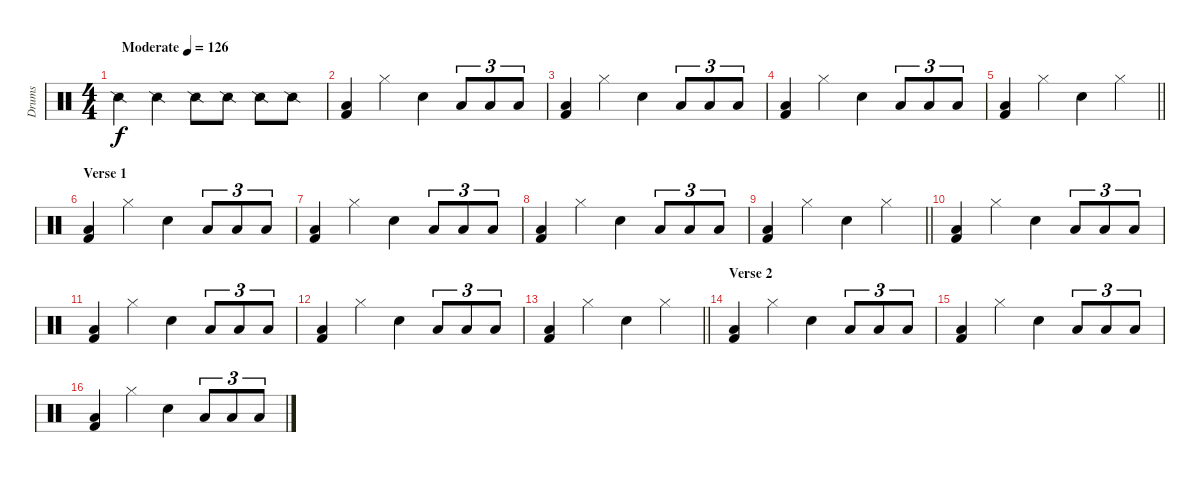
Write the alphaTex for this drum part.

\track ("Drums" "Drums") {instrument percussion}
\staff {score}
\articulation defaults
\ts (4 4)
\tempo (126 "Moderate")
\clef neutral
\ks c "Snare (side stick) 2".4{dy f} "Snare (side stick) 2".4 "Snare (side stick) 2".8 "Snare (side stick) 2".8 "Snare (side stick) 2".8 "Snare (side stick) 2".8
|
("Low Floor Tom (hit)" "Kick (hit) 2").4 "Hi-Hat (closed)".4 "Electric Snare (hit)".4 "Low Floor Tom (hit)".8{tu (3 2)} "Low Floor Tom (hit)".8{tu (3 2)} "Low Floor Tom (hit)".8{tu (3 2)} |
("Low Floor Tom (hit)" "Kick (hit) 2").4 "Hi-Hat (closed)".4 "Electric Snare (hit)".4 "Low Floor Tom (hit)".8{tu (3 2)} "Low Floor Tom (hit)".8{tu (3 2)} "Low Floor Tom (hit)".8{tu (3 2)} |
("Low Floor Tom (hit)" "Kick (hit) 2").4 "Hi-Hat (closed)".4 "Electric Snare (hit)".4 "Low Floor Tom (hit)".8{tu (3 2)} "Low Floor Tom (hit)".8{tu (3 2)} "Low Floor Tom (hit)".8{tu (3 2)} |
\barLineRight lightlight
("Low Floor Tom (hit)" "Kick (hit) 2").4 "Hi-Hat (closed)".4 "Electric Snare (hit)".4 "Hi-Hat (closed)".4 |
\section ("" "Verse 1")
("Low Floor Tom (hit)" "Kick (hit) 2").4 "Hi-Hat (closed)".4 "Electric Snare (hit)".4 "Low Floor Tom (hit)".8{tu (3 2)} "Low Floor Tom (hit)".8{tu (3 2)} "Low Floor Tom (hit)".8{tu (3 2)} |
("Low Floor Tom (hit)" "Kick (hit) 2").4 "Hi-Hat (closed)".4 "Electric Snare (hit)".4 "Low Floor Tom (hit)".8{tu (3 2)} "Low Floor Tom (hit)".8{tu (3 2)} "Low Floor Tom (hit)".8{tu (3 2)} |
("Low Floor Tom (hit)" "Kick (hit) 2").4 "Hi-Hat (closed)".4 "Electric Snare (hit)".4 "Low Floor Tom (hit)".8{tu (3 2)} "Low Floor Tom (hit)".8{tu (3 2)} "Low Floor Tom (hit)".8{tu (3 2)} |
\barLineRight lightlight
("Low Floor Tom (hit)" "Kick (hit) 2").4 "Hi-Hat (closed)".4 "Electric Snare (hit)".4 "Hi-Hat (closed)".4 |
("Low Floor Tom (hit)" "Kick (hit) 2").4 "Hi-Hat (closed)".4 "Electric Snare (hit)".4 "Low Floor Tom (hit)".8{tu (3 2)} "Low Floor Tom (hit)".8{tu (3 2)} "Low Floor Tom (hit)".8{tu (3 2)} |
("Low Floor Tom (hit)" "Kick (hit) 2").4 "Hi-Hat (closed)".4 "Electric Snare (hit)".4 "Low Floor Tom (hit)".8{tu (3 2)} "Low Floor Tom (hit)".8{tu (3 2)} "Low Floor Tom (hit)".8{tu (3 2)} |
("Low Floor Tom (hit)" "Kick (hit) 2").4 "Hi-Hat (closed)".4 "Electric Snare (hit)".4 "Low Floor Tom (hit)".8{tu (3 2)} "Low Floor Tom (hit)".8{tu (3 2)} "Low Floor Tom (hit)".8{tu (3 2)} |
\barLineRight lightlight
("Low Floor Tom (hit)" "Kick (hit) 2").4 "Hi-Hat (closed)".4 "Electric Snare (hit)".4 "Hi-Hat (closed)".4 |
\section ("" "Verse 2")
("Low Floor Tom (hit)" "Kick (hit) 2").4 "Hi-Hat (closed)".4 "Electric Snare (hit)".4 "Low Floor Tom (hit)".8{tu (3 2)} "Low Floor Tom (hit)".8{tu (3 2)} "Low Floor Tom (hit)".8{tu (3 2)} |
("Low Floor Tom (hit)" "Kick (hit) 2").4 "Hi-Hat (closed)".4 "Electric Snare (hit)".4 "Low Floor Tom (hit)".8{tu (3 2)} "Low Floor Tom (hit)".8{tu (3 2)} "Low Floor Tom (hit)".8{tu (3 2)} |
("Low Floor Tom (hit)" "Kick (hit) 2").4 "Hi-Hat (closed)".4 "Electric Snare (hit)".4 "Low Floor Tom (hit)".8{tu (3 2)} "Low Floor Tom (hit)".8{tu (3 2)} "Low Floor Tom (hit)".8{tu (3 2)}
